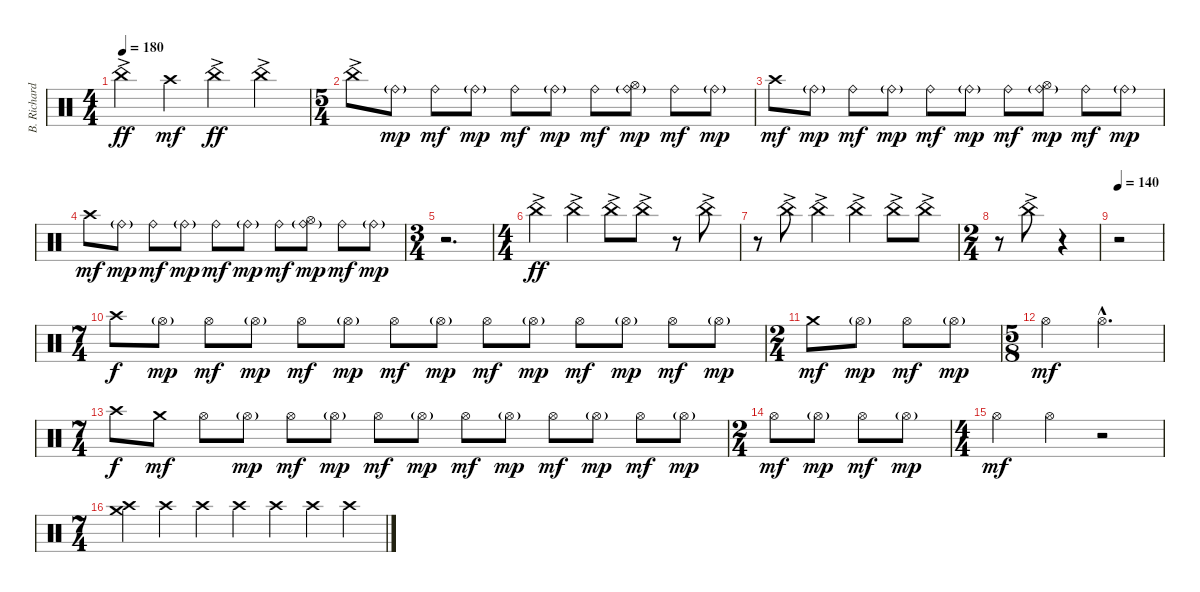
\track ("B. Richardson Drums" "B. Richard") {instrument percussion}
\staff {score}
\articulation defaults
\ts (4 4)
\tempo 180
\clef neutral
\ks c "China (hit)"{ac}.4{dy ff} "Crash high (hit)".4{dy mf} "China (hit)"{ac}.4{dy ff} "China (hit)"{ac}.4
|
\ts (5 4)
"China (hit)"{ac}.8 "Ride (bell)"{g}.8{dy mp} "Ride (bell)".8{dy mf} "Ride (bell)"{g}.8{dy mp} "Ride (bell)".8{dy mf} "Ride (bell)"{g}.8{dy mp} "Ride (bell)".8{dy mf} ("Ride (bell)"{g} "Hi-Hat (open)").8{dy mp} "Ride (bell)".8{dy mf} "Ride (bell)"{g}.8{dy mp} |
"Crash high (hit)".8{dy mf} "Ride (bell)"{g}.8{dy mp} "Ride (bell)".8{dy mf} "Ride (bell)"{g}.8{dy mp} "Ride (bell)".8{dy mf} "Ride (bell)"{g}.8{dy mp} "Ride (bell)".8{dy mf} ("Ride (bell)"{g} "Hi-Hat (open)").8{dy mp} "Ride (bell)".8{dy mf} "Ride (bell)"{g}.8{dy mp} |
"Crash high (hit)".8{dy mf} "Ride (bell)"{g}.8{dy mp} "Ride (bell)".8{dy mf} "Ride (bell)"{g}.8{dy mp} "Ride (bell)".8{dy mf} "Ride (bell)"{g}.8{dy mp} "Ride (bell)".8{dy mf} ("Ride (bell)"{g} "Hi-Hat (open)").8{dy mp} "Ride (bell)".8{dy mf} "Ride (bell)"{g}.8{dy mp} |
\ts (3 4)
r.2{d} |
\ts (4 4)
"China (hit)"{ac}.4{dy ff} "China (hit)"{ac}.4 "China (hit)"{ac}.8 "China (hit)"{ac}.8 r.8 "China (hit)"{ac}.8 |
r.8 "China (hit)"{ac}.8 "China (hit)"{ac}.4 "China (hit)"{ac}.4 "China (hit)"{ac}.8 "China (hit)"{ac}.8 |
\ts (2 4)
r.8 "China (hit)"{ac}.8 r.4 |
\tempo 140
r.2 |
\ts (7 4)
"Crash high (hit)".8{dy f} "Hi-Hat (open)"{g}.8{dy mp} "Hi-Hat (open)".8{dy mf} "Hi-Hat (open)"{g}.8{dy mp} "Hi-Hat (open)".8{dy mf} "Hi-Hat (open)"{g}.8{dy mp} "Hi-Hat (open)".8{dy mf} "Hi-Hat (open)"{g}.8{dy mp} "Hi-Hat (open)".8{dy mf} "Hi-Hat (open)"{g}.8{dy mp} "Hi-Hat (open)".8{dy mf} "Hi-Hat (open)"{g}.8{dy mp} "Hi-Hat (open)".8{dy mf} "Hi-Hat (open)"{g}.8{dy mp} |
\ts (2 4)
"Crash medium (hit)".8{dy mf} "Hi-Hat (open)"{g}.8{dy mp} "Hi-Hat (open)".8{dy mf} "Hi-Hat (open)"{g}.8{dy mp} |
\ts (5 8)
"Hi-Hat (open)".4{dy mf} "Hi-Hat (open)"{hac}.4{d} |
\ts (7 4)
"Crash high (hit)".8{dy f} "Crash medium (hit)".8{dy mf} "Hi-Hat (open)".8 "Hi-Hat (open)"{g}.8{dy mp} "Hi-Hat (open)".8{dy mf} "Hi-Hat (open)"{g}.8{dy mp} "Hi-Hat (open)".8{dy mf} "Hi-Hat (open)"{g}.8{dy mp} "Hi-Hat (open)".8{dy mf} "Hi-Hat (open)"{g}.8{dy mp} "Hi-Hat (open)".8{dy mf} "Hi-Hat (open)"{g}.8{dy mp} "Hi-Hat (open)".8{dy mf} "Hi-Hat (open)"{g}.8{dy mp} |
\ts (2 4)
"Hi-Hat (open)".8{dy mf} "Hi-Hat (open)"{g}.8{dy mp} "Hi-Hat (open)".8{dy mf} "Hi-Hat (open)"{g}.8{dy mp} |
\ts (4 4)
"Hi-Hat (open)".4{dy mf} "Hi-Hat (open)".4 r.2 |
\ts (7 4)
("Crash high (hit)" "Crash medium (hit)").4 "Crash high (hit)".4 "Crash high (hit)".4 "Crash high (hit)".4 "Crash high (hit)".4 "Crash high (hit)".4 "Crash high (hit)".4
